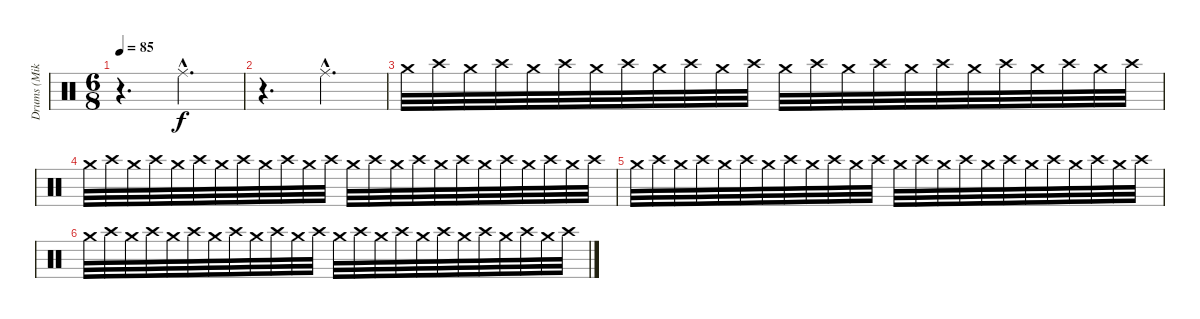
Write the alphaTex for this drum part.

\track ("Drums (Mike Joyce)" "Drums (Mik") {instrument percussion}
\staff {score}
\articulation defaults
\ts (6 8)
\tempo 85
\clef neutral
\ks c
r.4{d dy f} "Ride (middle)"{hac}.4{d} |
r.4{d} "Ride (middle)"{hac}.4{d} |
"Crash medium (hit)".32 "Crash high (hit)".32 "Crash medium (hit)".32 "Crash high (hit)".32 "Crash medium (hit)".32 "Crash high (hit)".32 "Crash medium (hit)".32 "Crash high (hit)".32 "Crash medium (hit)".32 "Crash high (hit)".32 "Crash medium (hit)".32 "Crash high (hit)".32 "Crash medium (hit)".32 "Crash high (hit)".32 "Crash medium (hit)".32 "Crash high (hit)".32 "Crash medium (hit)".32 "Crash high (hit)".32 "Crash medium (hit)".32 "Crash high (hit)".32 "Crash medium (hit)".32 "Crash high (hit)".32 "Crash medium (hit)".32 "Crash high (hit)".32 |
"Crash medium (hit)".32 "Crash high (hit)".32 "Crash medium (hit)".32 "Crash high (hit)".32 "Crash medium (hit)".32 "Crash high (hit)".32 "Crash medium (hit)".32 "Crash high (hit)".32 "Crash medium (hit)".32 "Crash high (hit)".32 "Crash medium (hit)".32 "Crash high (hit)".32 "Crash medium (hit)".32 "Crash high (hit)".32 "Crash medium (hit)".32 "Crash high (hit)".32 "Crash medium (hit)".32 "Crash high (hit)".32 "Crash medium (hit)".32 "Crash high (hit)".32 "Crash medium (hit)".32 "Crash high (hit)".32 "Crash medium (hit)".32 "Crash high (hit)".32 |
"Crash medium (hit)".32{volume 0} "Crash high (hit)".32 "Crash medium (hit)".32 "Crash high (hit)".32 "Crash medium (hit)".32 "Crash high (hit)".32 "Crash medium (hit)".32 "Crash high (hit)".32 "Crash medium (hit)".32 "Crash high (hit)".32 "Crash medium (hit)".32 "Crash high (hit)".32 "Crash medium (hit)".32 "Crash high (hit)".32 "Crash medium (hit)".32 "Crash high (hit)".32 "Crash medium (hit)".32 "Crash high (hit)".32 "Crash medium (hit)".32 "Crash high (hit)".32 "Crash medium (hit)".32 "Crash high (hit)".32 "Crash medium (hit)".32 "Crash high (hit)".32 |
"Crash medium (hit)".32 "Crash high (hit)".32 "Crash medium (hit)".32 "Crash high (hit)".32 "Crash medium (hit)".32 "Crash high (hit)".32 "Crash medium (hit)".32 "Crash high (hit)".32 "Crash medium (hit)".32 "Crash high (hit)".32 "Crash medium (hit)".32 "Crash high (hit)".32 "Crash medium (hit)".32 "Crash high (hit)".32 "Crash medium (hit)".32 "Crash high (hit)".32 "Crash medium (hit)".32 "Crash high (hit)".32 "Crash medium (hit)".32 "Crash high (hit)".32 "Crash medium (hit)".32 "Crash high (hit)".32 "Crash medium (hit)".32 "Crash high (hit)".32
